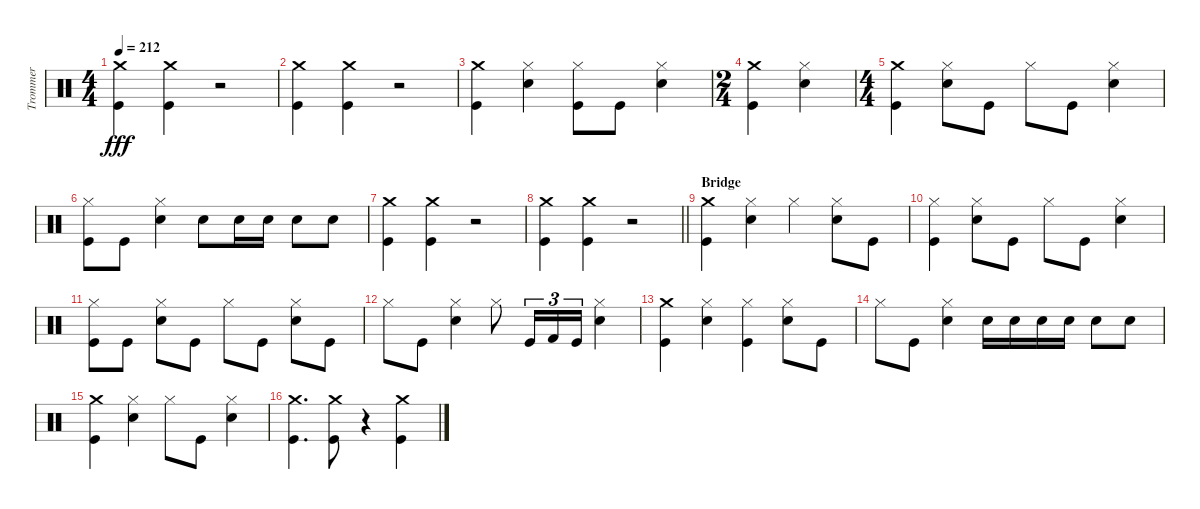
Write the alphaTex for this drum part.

\track ("Trommer" "Trommer") {instrument percussion}
\staff {score}
\articulation defaults
\ts (4 4)
\tempo 212
\clef neutral
\ks c
("Kick (hit)" "Crash medium (hit)").4{dy fff} ("Kick (hit)" "Crash medium (hit)").4 r.2 |
("Kick (hit)" "Crash medium (hit)").4 ("Crash medium (hit)" "Kick (hit)").4 r.2 |
("Kick (hit)" "Crash medium (hit)").4 ("Snare (hit) 2" "Hi-Hat (closed)").4 ("Kick (hit)" "Hi-Hat (closed)").8 "Kick (hit)".8 ("Snare (hit) 2" "Hi-Hat (closed)").4 |
\ts (2 4)
("Crash medium (hit)" "Kick (hit)").4 ("Snare (hit) 2" "Hi-Hat (closed)").4 |
\ts (4 4)
("Kick (hit)" "Crash medium (hit)").4 ("Snare (hit) 2" "Hi-Hat (closed)").8 "Kick (hit)".8 "Hi-Hat (closed)".8 "Kick (hit)".8 ("Snare (hit) 2" "Hi-Hat (closed)").4 |
("Hi-Hat (closed)" "Kick (hit)").8 "Kick (hit)".8 ("Hi-Hat (closed)" "Snare (hit) 2").4 "Snare (hit) 2".8 "Snare (hit) 2".16 "Snare (hit) 2".16 "Snare (hit) 2".8 "Snare (hit) 2".8 |
("Kick (hit)" "Crash medium (hit)").4 ("Kick (hit)" "Crash medium (hit)").4 r.2 |
\barLineRight lightlight
("Crash medium (hit)" "Kick (hit)").4 ("Kick (hit)" "Crash medium (hit)").4 r.2 |
\section ("" "Bridge")
("Kick (hit)" "Crash medium (hit)").4 ("Snare (hit) 2" "Hi-Hat (closed)").4 "Hi-Hat (closed)".4 ("Snare (hit) 2" "Hi-Hat (closed)").8 "Kick (hit)".8 |
("Hi-Hat (closed)" "Kick (hit)").4 ("Hi-Hat (closed)" "Snare (hit) 2").8 "Kick (hit)".8 "Hi-Hat (closed)".8 "Kick (hit)".8 ("Snare (hit) 2" "Hi-Hat (closed)").4 |
("Hi-Hat (closed)" "Kick (hit)").8 "Kick (hit)".8 ("Snare (hit) 2" "Hi-Hat (closed)").8 "Kick (hit)".8 "Hi-Hat (closed)".8 "Kick (hit)".8 ("Snare (hit) 2" "Hi-Hat (closed)").8 "Kick (hit)".8 |
"Hi-Hat (closed)".8 "Kick (hit)".8 ("Snare (hit) 2" "Hi-Hat (closed)").4 "Hi-Hat (closed)".8 "Kick (hit)".16{tu (3 2)} "Kick (hit) 2".16{tu (3 2)} "Kick (hit)".16{tu (3 2)} ("Snare (hit) 2" "Hi-Hat (closed)").4 |
("Kick (hit)" "Crash medium (hit)").4 ("Hi-Hat (closed)" "Snare (hit) 2").4 ("Kick (hit)" "Hi-Hat (closed)").4 ("Snare (hit) 2" "Hi-Hat (closed)").8 "Kick (hit)".8 |
"Hi-Hat (closed)".8 "Kick (hit)".8 ("Snare (hit) 2" "Hi-Hat (closed)").4 "Snare (hit) 2".16 "Snare (hit) 2".16 "Snare (hit) 2".16 "Snare (hit) 2".16 "Snare (hit) 2".8 "Snare (hit) 2".8 |
("Kick (hit)" "Crash medium (hit)").4 ("Snare (hit) 2" "Hi-Hat (closed)").4 "Hi-Hat (closed)".8 "Kick (hit)".8 ("Snare (hit) 2" "Hi-Hat (closed)").4 |
("Kick (hit)" "Crash medium (hit)").4{d} ("Crash medium (hit)" "Kick (hit)").8 r.4 ("Kick (hit)" "Crash medium (hit)").4
